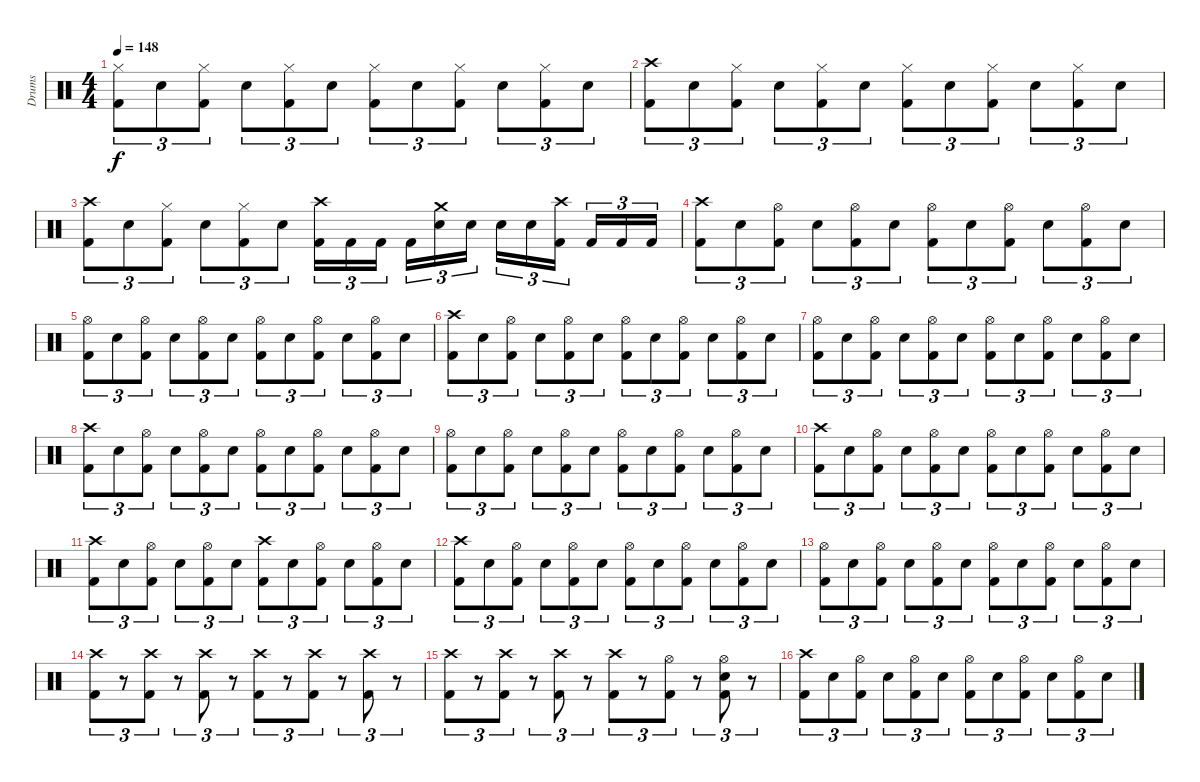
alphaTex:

\track ("Drums" "Drums") {instrument percussion}
\staff {score}
\articulation defaults
\ts (4 4)
\tempo 148
\clef neutral
\ks c
("Hi-Hat (closed)" "Kick (hit) 2").8{tu (3 2) dy f} "Electric Snare (hit)".8{tu (3 2)} ("Hi-Hat (closed)" "Kick (hit) 2").8{tu (3 2)} "Electric Snare (hit)".8{tu (3 2)} ("Hi-Hat (closed)" "Kick (hit) 2").8{tu (3 2)} "Electric Snare (hit)".8{tu (3 2)} ("Hi-Hat (closed)" "Kick (hit) 2").8{tu (3 2)} "Electric Snare (hit)".8{tu (3 2)} ("Hi-Hat (closed)" "Kick (hit) 2").8{tu (3 2)} "Electric Snare (hit)".8{tu (3 2)} ("Hi-Hat (closed)" "Kick (hit) 2").8{tu (3 2)} "Electric Snare (hit)".8{tu (3 2)} |
("Crash high (hit)" "Kick (hit) 2").8{tu (3 2)} "Electric Snare (hit)".8{tu (3 2)} ("Hi-Hat (closed)" "Kick (hit) 2").8{tu (3 2)} "Electric Snare (hit)".8{tu (3 2)} ("Hi-Hat (closed)" "Kick (hit) 2").8{tu (3 2)} "Electric Snare (hit)".8{tu (3 2)} ("Hi-Hat (closed)" "Kick (hit) 2").8{tu (3 2)} "Electric Snare (hit)".8{tu (3 2)} ("Hi-Hat (closed)" "Kick (hit) 2").8{tu (3 2)} "Electric Snare (hit)".8{tu (3 2)} ("Hi-Hat (closed)" "Kick (hit) 2").8{tu (3 2)} "Electric Snare (hit)".8{tu (3 2)} |
("Crash high (hit)" "Kick (hit) 2").8{tu (3 2)} "Electric Snare (hit)".8{tu (3 2)} ("Hi-Hat (closed)" "Kick (hit) 2").8{tu (3 2)} "Electric Snare (hit)".8{tu (3 2)} ("Hi-Hat (closed)" "Kick (hit) 2").8{tu (3 2)} "Electric Snare (hit)".8{tu (3 2)} ("Crash high (hit)" "Kick (hit) 2").16{tu (3 2)} "Kick (hit) 2".16{tu (3 2)} "Kick (hit) 2".16{tu (3 2)} "Kick (hit) 2".16{tu (3 2)} ("Crash medium (hit)" "Electric Snare (hit)").16{tu (3 2)} "Electric Snare (hit)".16{tu (3 2)} "Electric Snare (hit)".16{tu (3 2)} "Electric Snare (hit)".16{tu (3 2)} ("Crash high (hit)" "Kick (hit) 2").16{tu (3 2)} "Kick (hit) 2".16{tu (3 2)} "Kick (hit) 2".16{tu (3 2)} "Kick (hit) 2".16{tu (3 2)} |
("Crash high (hit)" "Kick (hit) 2").8{tu (3 2)} "Electric Snare (hit)".8{tu (3 2)} ("Hi-Hat (open)" "Kick (hit) 2").8{tu (3 2)} "Electric Snare (hit)".8{tu (3 2)} ("Hi-Hat (open)" "Kick (hit) 2").8{tu (3 2)} "Electric Snare (hit)".8{tu (3 2)} ("Hi-Hat (open)" "Kick (hit) 2").8{tu (3 2)} "Electric Snare (hit)".8{tu (3 2)} ("Hi-Hat (open)" "Kick (hit) 2").8{tu (3 2)} "Electric Snare (hit)".8{tu (3 2)} ("Hi-Hat (open)" "Kick (hit) 2").8{tu (3 2)} "Electric Snare (hit)".8{tu (3 2)} |
("Hi-Hat (open)" "Kick (hit) 2").8{tu (3 2)} "Electric Snare (hit)".8{tu (3 2)} ("Hi-Hat (open)" "Kick (hit) 2").8{tu (3 2)} "Electric Snare (hit)".8{tu (3 2)} ("Hi-Hat (open)" "Kick (hit) 2").8{tu (3 2)} "Electric Snare (hit)".8{tu (3 2)} ("Hi-Hat (open)" "Kick (hit) 2").8{tu (3 2)} "Electric Snare (hit)".8{tu (3 2)} ("Hi-Hat (open)" "Kick (hit) 2").8{tu (3 2)} "Electric Snare (hit)".8{tu (3 2)} ("Hi-Hat (open)" "Kick (hit) 2").8{tu (3 2)} "Electric Snare (hit)".8{tu (3 2)} |
("Crash high (hit)" "Kick (hit) 2").8{tu (3 2)} "Electric Snare (hit)".8{tu (3 2)} ("Hi-Hat (open)" "Kick (hit) 2").8{tu (3 2)} "Electric Snare (hit)".8{tu (3 2)} ("Hi-Hat (open)" "Kick (hit) 2").8{tu (3 2)} "Electric Snare (hit)".8{tu (3 2)} ("Hi-Hat (open)" "Kick (hit) 2").8{tu (3 2)} "Electric Snare (hit)".8{tu (3 2)} ("Hi-Hat (open)" "Kick (hit) 2").8{tu (3 2)} "Electric Snare (hit)".8{tu (3 2)} ("Hi-Hat (open)" "Kick (hit) 2").8{tu (3 2)} "Electric Snare (hit)".8{tu (3 2)} |
("Hi-Hat (open)" "Kick (hit) 2").8{tu (3 2)} "Electric Snare (hit)".8{tu (3 2)} ("Hi-Hat (open)" "Kick (hit) 2").8{tu (3 2)} "Electric Snare (hit)".8{tu (3 2)} ("Hi-Hat (open)" "Kick (hit) 2").8{tu (3 2)} "Electric Snare (hit)".8{tu (3 2)} ("Hi-Hat (open)" "Kick (hit) 2").8{tu (3 2)} "Electric Snare (hit)".8{tu (3 2)} ("Hi-Hat (open)" "Kick (hit) 2").8{tu (3 2)} "Electric Snare (hit)".8{tu (3 2)} ("Hi-Hat (open)" "Kick (hit) 2").8{tu (3 2)} "Electric Snare (hit)".8{tu (3 2)} |
("Crash high (hit)" "Kick (hit) 2").8{tu (3 2)} "Electric Snare (hit)".8{tu (3 2)} ("Hi-Hat (open)" "Kick (hit) 2").8{tu (3 2)} "Electric Snare (hit)".8{tu (3 2)} ("Hi-Hat (open)" "Kick (hit) 2").8{tu (3 2)} "Electric Snare (hit)".8{tu (3 2)} ("Hi-Hat (open)" "Kick (hit) 2").8{tu (3 2)} "Electric Snare (hit)".8{tu (3 2)} ("Hi-Hat (open)" "Kick (hit) 2").8{tu (3 2)} "Electric Snare (hit)".8{tu (3 2)} ("Hi-Hat (open)" "Kick (hit) 2").8{tu (3 2)} "Electric Snare (hit)".8{tu (3 2)} |
("Hi-Hat (open)" "Kick (hit) 2").8{tu (3 2)} "Electric Snare (hit)".8{tu (3 2)} ("Hi-Hat (open)" "Kick (hit) 2").8{tu (3 2)} "Electric Snare (hit)".8{tu (3 2)} ("Hi-Hat (open)" "Kick (hit) 2").8{tu (3 2)} "Electric Snare (hit)".8{tu (3 2)} ("Hi-Hat (open)" "Kick (hit) 2").8{tu (3 2)} "Electric Snare (hit)".8{tu (3 2)} ("Hi-Hat (open)" "Kick (hit) 2").8{tu (3 2)} "Electric Snare (hit)".8{tu (3 2)} ("Hi-Hat (open)" "Kick (hit) 2").8{tu (3 2)} "Electric Snare (hit)".8{tu (3 2)} |
("Crash high (hit)" "Kick (hit) 2").8{tu (3 2)} "Electric Snare (hit)".8{tu (3 2)} ("Hi-Hat (open)" "Kick (hit) 2").8{tu (3 2)} "Electric Snare (hit)".8{tu (3 2)} ("Hi-Hat (open)" "Kick (hit) 2").8{tu (3 2)} "Electric Snare (hit)".8{tu (3 2)} ("Hi-Hat (open)" "Kick (hit) 2").8{tu (3 2)} "Electric Snare (hit)".8{tu (3 2)} ("Hi-Hat (open)" "Kick (hit) 2").8{tu (3 2)} "Electric Snare (hit)".8{tu (3 2)} ("Hi-Hat (open)" "Kick (hit) 2").8{tu (3 2)} "Electric Snare (hit)".8{tu (3 2)} |
("Crash high (hit)" "Kick (hit) 2").8{tu (3 2)} "Electric Snare (hit)".8{tu (3 2)} ("Hi-Hat (open)" "Kick (hit) 2").8{tu (3 2)} "Electric Snare (hit)".8{tu (3 2)} ("Hi-Hat (open)" "Kick (hit) 2").8{tu (3 2)} "Electric Snare (hit)".8{tu (3 2)} ("Crash high (hit)" "Kick (hit) 2").8{tu (3 2)} "Electric Snare (hit)".8{tu (3 2)} ("Hi-Hat (open)" "Kick (hit) 2").8{tu (3 2)} "Electric Snare (hit)".8{tu (3 2)} ("Hi-Hat (open)" "Kick (hit) 2").8{tu (3 2)} "Electric Snare (hit)".8{tu (3 2)} |
("Crash high (hit)" "Kick (hit) 2").8{tu (3 2)} "Electric Snare (hit)".8{tu (3 2)} ("Hi-Hat (open)" "Kick (hit) 2").8{tu (3 2)} "Electric Snare (hit)".8{tu (3 2)} ("Hi-Hat (open)" "Kick (hit) 2").8{tu (3 2)} "Electric Snare (hit)".8{tu (3 2)} ("Hi-Hat (open)" "Kick (hit) 2").8{tu (3 2)} "Electric Snare (hit)".8{tu (3 2)} ("Hi-Hat (open)" "Kick (hit) 2").8{tu (3 2)} "Electric Snare (hit)".8{tu (3 2)} ("Hi-Hat (open)" "Kick (hit) 2").8{tu (3 2)} "Electric Snare (hit)".8{tu (3 2)} |
("Hi-Hat (open)" "Kick (hit) 2").8{tu (3 2)} "Electric Snare (hit)".8{tu (3 2)} ("Hi-Hat (open)" "Kick (hit) 2").8{tu (3 2)} "Electric Snare (hit)".8{tu (3 2)} ("Hi-Hat (open)" "Kick (hit) 2").8{tu (3 2)} "Electric Snare (hit)".8{tu (3 2)} ("Hi-Hat (open)" "Kick (hit) 2").8{tu (3 2)} "Electric Snare (hit)".8{tu (3 2)} ("Hi-Hat (open)" "Kick (hit) 2").8{tu (3 2)} "Electric Snare (hit)".8{tu (3 2)} ("Hi-Hat (open)" "Kick (hit) 2").8{tu (3 2)} "Electric Snare (hit)".8{tu (3 2)} |
("Crash high (hit)" "Kick (hit) 2").8{tu (3 2)} r.8{tu (3 2)} ("Crash high (hit)" "Kick (hit) 2").8{tu (3 2)} r.8{tu (3 2)} ("Crash high (hit)" "Kick (hit) 2").8{tu (3 2)} r.8{tu (3 2)} ("Crash high (hit)" "Kick (hit) 2").8{tu (3 2)} r.8{tu (3 2)} ("Crash high (hit)" "Kick (hit) 2").8{tu (3 2)} r.8{tu (3 2)} ("Crash high (hit)" "Kick (hit) 2").8{tu (3 2)} r.8{tu (3 2)} |
("Crash high (hit)" "Kick (hit) 2").8{tu (3 2)} r.8{tu (3 2)} ("Crash high (hit)" "Kick (hit) 2").8{tu (3 2)} r.8{tu (3 2)} ("Crash high (hit)" "Kick (hit) 2").8{tu (3 2)} r.8{tu (3 2)} ("Crash high (hit)" "Kick (hit) 2").8{tu (3 2)} r.8{tu (3 2)} ("Hi-Hat (open)" "Kick (hit) 2").8{tu (3 2)} r.8{tu (3 2)} ("Hi-Hat (open)" "Electric Snare (hit)" "Kick (hit) 2").8{tu (3 2)} r.8{tu (3 2)} |
("Crash high (hit)" "Kick (hit) 2").8{tu (3 2)} "Electric Snare (hit)".8{tu (3 2)} ("Hi-Hat (open)" "Kick (hit) 2").8{tu (3 2)} "Electric Snare (hit)".8{tu (3 2)} ("Hi-Hat (open)" "Kick (hit) 2").8{tu (3 2)} "Electric Snare (hit)".8{tu (3 2)} ("Hi-Hat (open)" "Kick (hit) 2").8{tu (3 2)} "Electric Snare (hit)".8{tu (3 2)} ("Hi-Hat (open)" "Kick (hit) 2").8{tu (3 2)} "Electric Snare (hit)".8{tu (3 2)} ("Hi-Hat (open)" "Kick (hit) 2").8{tu (3 2)} "Electric Snare (hit)".8{tu (3 2)}
